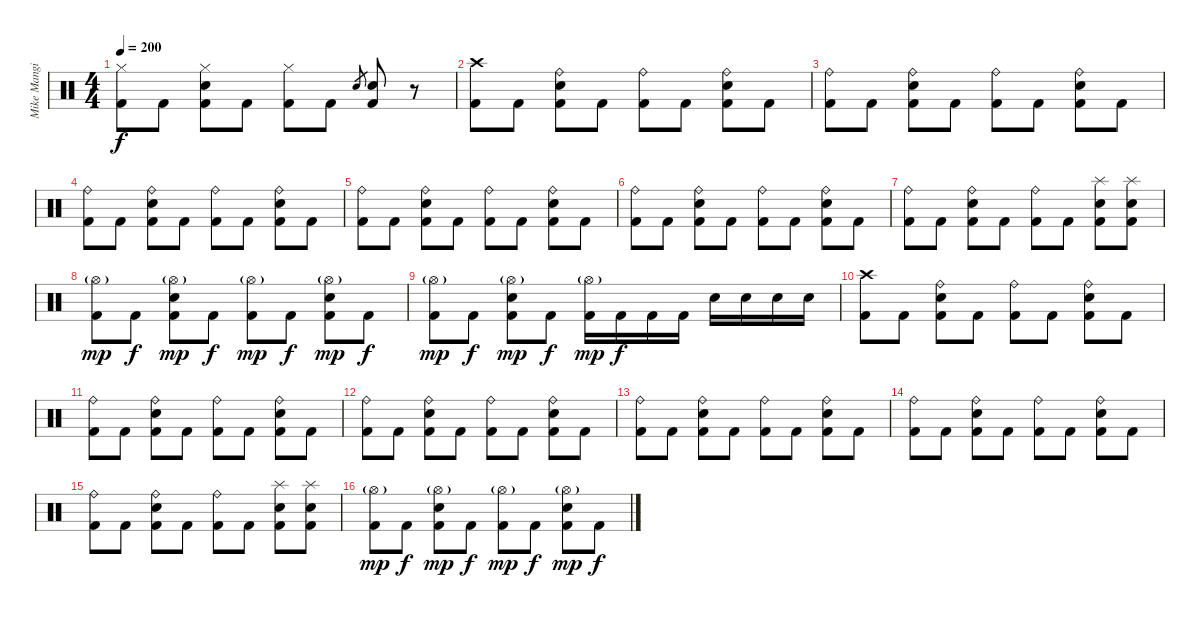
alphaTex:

\track ("Mike Mangini" "Mike Mangi") {instrument percussion}
\staff {score}
\articulation defaults
\ts (4 4)
\tempo 200
\clef neutral
\ks c
("Hi-Hat (closed)" "Kick (hit) 2").8{dy f} "Kick (hit) 2".8 ("Hi-Hat (closed)" "Electric Snare (hit)" "Kick (hit) 2").8 "Kick (hit) 2".8 ("Hi-Hat (closed)" "Kick (hit) 2").8 "Kick (hit) 2".8 "Electric Snare (hit)".8{gr} ("Electric Snare (hit)" "Kick (hit) 2").8 r.8 |
("Crash high (hit)" "Kick (hit) 2").8 "Kick (hit) 2".8 ("Ride (bell)" "Electric Snare (hit)" "Kick (hit) 2").8 "Kick (hit) 2".8 ("Ride (bell)" "Kick (hit) 2").8 "Kick (hit) 2".8 ("Ride (bell)" "Electric Snare (hit)" "Kick (hit) 2").8 "Kick (hit) 2".8 |
("Ride (bell)" "Kick (hit) 2").8 "Kick (hit) 2".8 ("Ride (bell)" "Electric Snare (hit)" "Kick (hit) 2").8 "Kick (hit) 2".8 ("Ride (bell)" "Kick (hit) 2").8 "Kick (hit) 2".8 ("Ride (bell)" "Electric Snare (hit)" "Kick (hit) 2").8 "Kick (hit) 2".8 |
("Ride (bell)" "Kick (hit) 2").8 "Kick (hit) 2".8 ("Ride (bell)" "Electric Snare (hit)" "Kick (hit) 2").8 "Kick (hit) 2".8 ("Ride (bell)" "Kick (hit) 2").8 "Kick (hit) 2".8 ("Ride (bell)" "Electric Snare (hit)" "Kick (hit) 2").8 "Kick (hit) 2".8 |
("Ride (bell)" "Kick (hit) 2").8 "Kick (hit) 2".8 ("Ride (bell)" "Electric Snare (hit)" "Kick (hit) 2").8 "Kick (hit) 2".8 ("Ride (bell)" "Kick (hit) 2").8 "Kick (hit) 2".8 ("Ride (bell)" "Electric Snare (hit)" "Kick (hit) 2").8 "Kick (hit) 2".8 |
("Ride (bell)" "Kick (hit) 2").8 "Kick (hit) 2".8 ("Ride (bell)" "Electric Snare (hit)" "Kick (hit) 2").8 "Kick (hit) 2".8 ("Ride (bell)" "Kick (hit) 2").8 "Kick (hit) 2".8 ("Ride (bell)" "Electric Snare (hit)" "Kick (hit) 2").8 "Kick (hit) 2".8 |
("Ride (bell)" "Kick (hit) 2").8 "Kick (hit) 2".8 ("Ride (bell)" "Electric Snare (hit)" "Kick (hit) 2").8 "Kick (hit) 2".8 ("Ride (bell)" "Kick (hit) 2").8 "Kick (hit) 2".8 ("Splash (hit)" "Electric Snare (hit)" "Kick (hit) 2").8 ("Splash (hit)" "Electric Snare (hit)" "Kick (hit) 2").8 |
("Hi-Hat (open)"{g} "Kick (hit) 2").8{dy mp} "Kick (hit) 2".8{dy f} ("Hi-Hat (open)"{g} "Electric Snare (hit)" "Kick (hit) 2").8{dy mp} "Kick (hit) 2".8{dy f} ("Hi-Hat (open)"{g} "Kick (hit) 2").8{dy mp} "Kick (hit) 2".8{dy f} ("Hi-Hat (open)"{g} "Electric Snare (hit)" "Kick (hit) 2").8{dy mp} "Kick (hit) 2".8{dy f} |
("Hi-Hat (open)"{g} "Kick (hit) 2").8{dy mp} "Kick (hit) 2".8{dy f} ("Hi-Hat (open)"{g} "Electric Snare (hit)" "Kick (hit) 2").8{dy mp} "Kick (hit) 2".8{dy f} ("Hi-Hat (open)"{g} "Kick (hit) 2").16{dy mp} "Kick (hit) 2".16{dy f} "Kick (hit) 2".16 "Kick (hit) 2".16 "Electric Snare (hit)".16 "Electric Snare (hit)".16 "Electric Snare (hit)".16 "Electric Snare (hit)".16 |
("Crash high (hit)" "Kick (hit) 2").8 "Kick (hit) 2".8 ("Ride (bell)" "Electric Snare (hit)" "Kick (hit) 2").8 "Kick (hit) 2".8 ("Ride (bell)" "Kick (hit) 2").8 "Kick (hit) 2".8 ("Ride (bell)" "Electric Snare (hit)" "Kick (hit) 2").8 "Kick (hit) 2".8 |
("Ride (bell)" "Kick (hit) 2").8 "Kick (hit) 2".8 ("Ride (bell)" "Electric Snare (hit)" "Kick (hit) 2").8 "Kick (hit) 2".8 ("Ride (bell)" "Kick (hit) 2").8 "Kick (hit) 2".8 ("Ride (bell)" "Electric Snare (hit)" "Kick (hit) 2").8 "Kick (hit) 2".8 |
("Ride (bell)" "Kick (hit) 2").8 "Kick (hit) 2".8 ("Ride (bell)" "Electric Snare (hit)" "Kick (hit) 2").8 "Kick (hit) 2".8 ("Ride (bell)" "Kick (hit) 2").8 "Kick (hit) 2".8 ("Ride (bell)" "Electric Snare (hit)" "Kick (hit) 2").8 "Kick (hit) 2".8 |
("Ride (bell)" "Kick (hit) 2").8 "Kick (hit) 2".8 ("Ride (bell)" "Electric Snare (hit)" "Kick (hit) 2").8 "Kick (hit) 2".8 ("Ride (bell)" "Kick (hit) 2").8 "Kick (hit) 2".8 ("Ride (bell)" "Electric Snare (hit)" "Kick (hit) 2").8 "Kick (hit) 2".8 |
("Ride (bell)" "Kick (hit) 2").8 "Kick (hit) 2".8 ("Ride (bell)" "Electric Snare (hit)" "Kick (hit) 2").8 "Kick (hit) 2".8 ("Ride (bell)" "Kick (hit) 2").8 "Kick (hit) 2".8 ("Ride (bell)" "Electric Snare (hit)" "Kick (hit) 2").8 "Kick (hit) 2".8 |
("Ride (bell)" "Kick (hit) 2").8 "Kick (hit) 2".8 ("Ride (bell)" "Electric Snare (hit)" "Kick (hit) 2").8 "Kick (hit) 2".8 ("Ride (bell)" "Kick (hit) 2").8 "Kick (hit) 2".8 ("Splash (hit)" "Electric Snare (hit)" "Kick (hit) 2").8 ("Splash (hit)" "Electric Snare (hit)" "Kick (hit) 2").8 |
("Hi-Hat (open)"{g} "Kick (hit) 2").8{dy mp} "Kick (hit) 2".8{dy f} ("Hi-Hat (open)"{g} "Electric Snare (hit)" "Kick (hit) 2").8{dy mp} "Kick (hit) 2".8{dy f} ("Hi-Hat (open)"{g} "Kick (hit) 2").8{dy mp} "Kick (hit) 2".8{dy f} ("Hi-Hat (open)"{g} "Electric Snare (hit)" "Kick (hit) 2").8{dy mp} "Kick (hit) 2".8{dy f}
